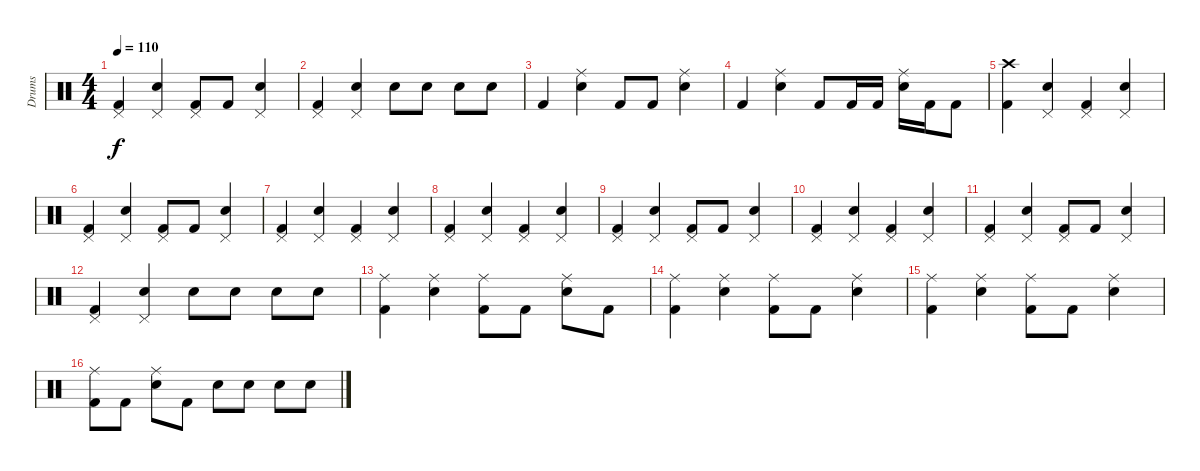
\track ("Drums" "Drums") {instrument percussion}
\staff {score}
\articulation defaults
\ts (4 4)
\tempo 110
\clef neutral
\ks c
("Pedal Hi-Hat (hit)" "Kick (hit) 2").4{dy f} ("Pedal Hi-Hat (hit)" "Electric Snare (hit)").4 ("Pedal Hi-Hat (hit)" "Kick (hit) 2").8 "Kick (hit) 2".8 ("Pedal Hi-Hat (hit)" "Electric Snare (hit)").4 |
("Pedal Hi-Hat (hit)" "Kick (hit) 2").4 ("Pedal Hi-Hat (hit)" "Electric Snare (hit)").4 "Electric Snare (hit)".8 "Electric Snare (hit)".8 "Electric Snare (hit)".8 "Electric Snare (hit)".8 |
"Kick (hit) 2".4 ("Ride (middle)" "Electric Snare (hit)").4 "Kick (hit) 2".8 "Kick (hit) 2".8 ("Ride (middle)" "Electric Snare (hit)").4 |
"Kick (hit) 2".4 ("Ride (middle)" "Electric Snare (hit)").4 "Kick (hit) 2".8 "Kick (hit) 2".16 "Kick (hit) 2".16 ("Ride (middle)" "Electric Snare (hit)").16 "Kick (hit) 2".16 "Kick (hit) 2".8 |
("Crash high (hit)" "Kick (hit) 2").4 ("Pedal Hi-Hat (hit)" "Electric Snare (hit)").4 ("Pedal Hi-Hat (hit)" "Kick (hit) 2").4 ("Pedal Hi-Hat (hit)" "Electric Snare (hit)").4 |
("Pedal Hi-Hat (hit)" "Kick (hit) 2").4 ("Pedal Hi-Hat (hit)" "Electric Snare (hit)").4 ("Pedal Hi-Hat (hit)" "Kick (hit) 2").8 "Kick (hit) 2".8 ("Pedal Hi-Hat (hit)" "Electric Snare (hit)").4 |
("Pedal Hi-Hat (hit)" "Kick (hit) 2").4 ("Pedal Hi-Hat (hit)" "Electric Snare (hit)").4 ("Pedal Hi-Hat (hit)" "Kick (hit) 2").4 ("Pedal Hi-Hat (hit)" "Electric Snare (hit)").4 |
("Pedal Hi-Hat (hit)" "Kick (hit) 2").4 ("Pedal Hi-Hat (hit)" "Electric Snare (hit)").4 ("Pedal Hi-Hat (hit)" "Kick (hit) 2").4 ("Pedal Hi-Hat (hit)" "Electric Snare (hit)").4 |
("Pedal Hi-Hat (hit)" "Kick (hit) 2").4 ("Pedal Hi-Hat (hit)" "Electric Snare (hit)").4 ("Pedal Hi-Hat (hit)" "Kick (hit) 2").8 "Kick (hit) 2".8 ("Pedal Hi-Hat (hit)" "Electric Snare (hit)").4 |
("Pedal Hi-Hat (hit)" "Kick (hit) 2").4 ("Pedal Hi-Hat (hit)" "Electric Snare (hit)").4 ("Pedal Hi-Hat (hit)" "Kick (hit) 2").4 ("Pedal Hi-Hat (hit)" "Electric Snare (hit)").4 |
("Pedal Hi-Hat (hit)" "Kick (hit) 2").4 ("Pedal Hi-Hat (hit)" "Electric Snare (hit)").4 ("Pedal Hi-Hat (hit)" "Kick (hit) 2").8 "Kick (hit) 2".8 ("Pedal Hi-Hat (hit)" "Electric Snare (hit)").4 |
("Pedal Hi-Hat (hit)" "Kick (hit) 2").4 ("Pedal Hi-Hat (hit)" "Electric Snare (hit)").4 "Electric Snare (hit)".8 "Electric Snare (hit)".8 "Electric Snare (hit)".8 "Electric Snare (hit)".8 |
("Ride (middle)" "Kick (hit) 2").4 ("Ride (middle)" "Electric Snare (hit)").4 ("Ride (middle)" "Kick (hit) 2").8 "Kick (hit) 2".8 ("Ride (middle)" "Electric Snare (hit)").8 "Kick (hit) 2".8 |
("Ride (middle)" "Kick (hit) 2").4 ("Ride (middle)" "Electric Snare (hit)").4 ("Ride (middle)" "Kick (hit) 2").8 "Kick (hit) 2".8 ("Ride (middle)" "Electric Snare (hit)").4 |
("Ride (middle)" "Kick (hit) 2").4 ("Ride (middle)" "Electric Snare (hit)").4 ("Ride (middle)" "Kick (hit) 2").8 "Kick (hit) 2".8 ("Ride (middle)" "Electric Snare (hit)").4 |
("Ride (middle)" "Kick (hit) 2").8 "Kick (hit) 2".8 ("Ride (middle)" "Electric Snare (hit)").8 "Kick (hit) 2".8 "Electric Snare (hit)".8 "Electric Snare (hit)".8 "Electric Snare (hit)".8 "Electric Snare (hit)".8
